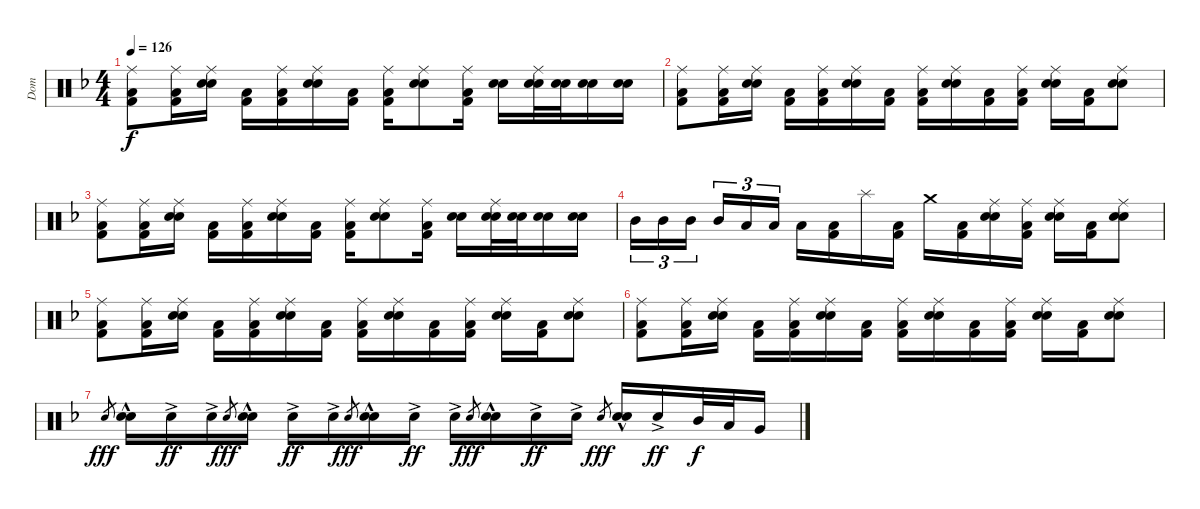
\track ("Dom" "Dom") {instrument percussion}
\staff {score}
\articulation defaults
\ts (4 4)
\tempo 126
\clef neutral
\ks f
("Ride (middle)" "Low Floor Tom (hit)" "Kick (hit) 2").8{dy f} ("Ride (middle)" "Low Floor Tom (hit)" "Kick (hit) 2").16 ("Ride (middle)" "Electric Snare (hit)" "Snare (hit) 2").16 ("Low Floor Tom (hit)" "Kick (hit) 2").16 ("Ride (middle)" "Low Floor Tom (hit)" "Kick (hit) 2").16 ("Ride (middle)" "Electric Snare (hit)" "Snare (hit) 2").16 ("Low Floor Tom (hit)" "Kick (hit) 2").16 ("Ride (middle)" "Low Floor Tom (hit)" "Kick (hit) 2").16 ("Ride (middle)" "Electric Snare (hit)" "Snare (hit) 2").8 ("Ride (middle)" "Low Floor Tom (hit)" "Kick (hit) 2").16 ("Electric Snare (hit)" "Snare (hit) 2").16 ("Ride (middle)" "Electric Snare (hit)" "Snare (hit) 2").32 ("Electric Snare (hit)" "Snare (hit) 2").32 ("Electric Snare (hit)" "Snare (hit) 2").16 ("Electric Snare (hit)" "Snare (hit) 2").16 |
("Ride (middle)" "Low Floor Tom (hit)" "Kick (hit) 2").8 ("Ride (middle)" "Low Floor Tom (hit)" "Kick (hit) 2").16 ("Ride (middle)" "Electric Snare (hit)" "Snare (hit) 2").16 ("Low Floor Tom (hit)" "Kick (hit) 2").16 ("Ride (middle)" "Low Floor Tom (hit)" "Kick (hit) 2").16 ("Ride (middle)" "Electric Snare (hit)" "Snare (hit) 2").16 ("Low Floor Tom (hit)" "Kick (hit) 2").16 ("Ride (middle)" "Low Floor Tom (hit)" "Kick (hit) 2").16 ("Ride (middle)" "Electric Snare (hit)" "Snare (hit) 2").16 ("Low Floor Tom (hit)" "Kick (hit) 2").16 ("Ride (middle)" "Low Floor Tom (hit)" "Kick (hit) 2").16 ("Ride (middle)" "Electric Snare (hit)" "Snare (hit) 2").16 ("Low Floor Tom (hit)" "Kick (hit) 2").16 ("Ride (middle)" "Electric Snare (hit)" "Snare (hit) 2").8 |
("Ride (middle)" "Low Floor Tom (hit)" "Kick (hit) 2").8 ("Ride (middle)" "Low Floor Tom (hit)" "Kick (hit) 2").16 ("Ride (middle)" "Electric Snare (hit)" "Snare (hit) 2").16 ("Low Floor Tom (hit)" "Kick (hit) 2").16 ("Ride (middle)" "Low Floor Tom (hit)" "Kick (hit) 2").16 ("Ride (middle)" "Electric Snare (hit)" "Snare (hit) 2").16 ("Low Floor Tom (hit)" "Kick (hit) 2").16 ("Ride (middle)" "Low Floor Tom (hit)" "Kick (hit) 2").16 ("Ride (middle)" "Electric Snare (hit)" "Snare (hit) 2").8 ("Ride (middle)" "Low Floor Tom (hit)" "Kick (hit) 2").16 ("Electric Snare (hit)" "Snare (hit) 2").16 ("Ride (middle)" "Electric Snare (hit)" "Snare (hit) 2").32 ("Electric Snare (hit)" "Snare (hit) 2").32 ("Electric Snare (hit)" "Snare (hit) 2").16 ("Electric Snare (hit)" "Snare (hit) 2").16 |
"Mid Tom (hit)".16{tu (3 2)} "Mid Tom (hit)".16{tu (3 2)} "Mid Tom (hit)".16{tu (3 2) beam splitsecondary} "Mid Tom (hit)".16{tu (3 2)} "Low Tom (hit)".16{tu (3 2)} "Low Tom (hit)".16{tu (3 2)} "Low Tom (hit)".16 ("Low Floor Tom (hit)" "Kick (hit) 2").16 "Splash (hit)".16 ("Low Floor Tom (hit)" "Kick (hit) 2").16 "Crash medium (hit)".16 ("Low Floor Tom (hit)" "Kick (hit) 2").16 ("Ride (middle)" "Electric Snare (hit)" "Snare (hit) 2").16 ("Ride (middle)" "Low Floor Tom (hit)" "Kick (hit) 2").16 ("Ride (middle)" "Electric Snare (hit)" "Snare (hit) 2").16 ("Low Floor Tom (hit)" "Kick (hit) 2").16 ("Ride (middle)" "Electric Snare (hit)" "Snare (hit) 2").8 |
("Ride (middle)" "Low Floor Tom (hit)" "Kick (hit) 2").8 ("Ride (middle)" "Low Floor Tom (hit)" "Kick (hit) 2").16 ("Ride (middle)" "Electric Snare (hit)" "Snare (hit) 2").16 ("Low Floor Tom (hit)" "Kick (hit) 2").16 ("Ride (middle)" "Low Floor Tom (hit)" "Kick (hit) 2").16 ("Ride (middle)" "Electric Snare (hit)" "Snare (hit) 2").16 ("Low Floor Tom (hit)" "Kick (hit) 2").16 ("Ride (middle)" "Low Floor Tom (hit)" "Kick (hit) 2").16 ("Ride (middle)" "Electric Snare (hit)" "Snare (hit) 2").16 ("Low Floor Tom (hit)" "Kick (hit) 2").16 ("Ride (middle)" "Low Floor Tom (hit)" "Kick (hit) 2").16 ("Ride (middle)" "Electric Snare (hit)" "Snare (hit) 2").16 ("Low Floor Tom (hit)" "Kick (hit) 2").16 ("Ride (middle)" "Electric Snare (hit)" "Snare (hit) 2").8 |
("Ride (middle)" "Low Floor Tom (hit)" "Kick (hit) 2").8 ("Ride (middle)" "Low Floor Tom (hit)" "Kick (hit) 2").16 ("Ride (middle)" "Electric Snare (hit)" "Snare (hit) 2").16 ("Low Floor Tom (hit)" "Kick (hit) 2").16 ("Ride (middle)" "Low Floor Tom (hit)" "Kick (hit) 2").16 ("Ride (middle)" "Electric Snare (hit)" "Snare (hit) 2").16 ("Low Floor Tom (hit)" "Kick (hit) 2").16 ("Ride (middle)" "Low Floor Tom (hit)" "Kick (hit) 2").16 ("Ride (middle)" "Electric Snare (hit)" "Snare (hit) 2").16 ("Low Floor Tom (hit)" "Kick (hit) 2").16 ("Ride (middle)" "Low Floor Tom (hit)" "Kick (hit) 2").16 ("Ride (middle)" "Electric Snare (hit)" "Snare (hit) 2").16 ("Low Floor Tom (hit)" "Kick (hit) 2").16 ("Ride (middle)" "Electric Snare (hit)" "Snare (hit) 2").8 |
"Electric Snare (hit)".8{gr dy fff} ("Electric Snare (hit)"{hac} "Snare (hit) 2").16 "Electric Snare (hit)"{ac}.16{dy ff} "Electric Snare (hit)"{ac}.16 "Electric Snare (hit)".8{gr dy fff} ("Electric Snare (hit)"{hac} "Snare (hit) 2").16 "Electric Snare (hit)"{ac}.16{dy ff} "Electric Snare (hit)"{ac}.16 "Electric Snare (hit)".8{gr dy fff} ("Electric Snare (hit)"{hac} "Snare (hit) 2").16 "Electric Snare (hit)"{ac}.16{dy ff} "Electric Snare (hit)"{ac}.16 "Electric Snare (hit)".8{gr dy fff} ("Electric Snare (hit)"{hac} "Snare (hit) 2").16 "Electric Snare (hit)"{ac}.16{dy ff} "Electric Snare (hit)"{ac}.16 "Electric Snare (hit)".8{gr dy fff} ("Electric Snare (hit)"{hac} "Snare (hit) 2").16 "Electric Snare (hit)"{ac}.16{dy ff} "Mid Tom (hit)".32{dy f} "Low Tom (hit)".32 "Very Low Tom (hit)".16
